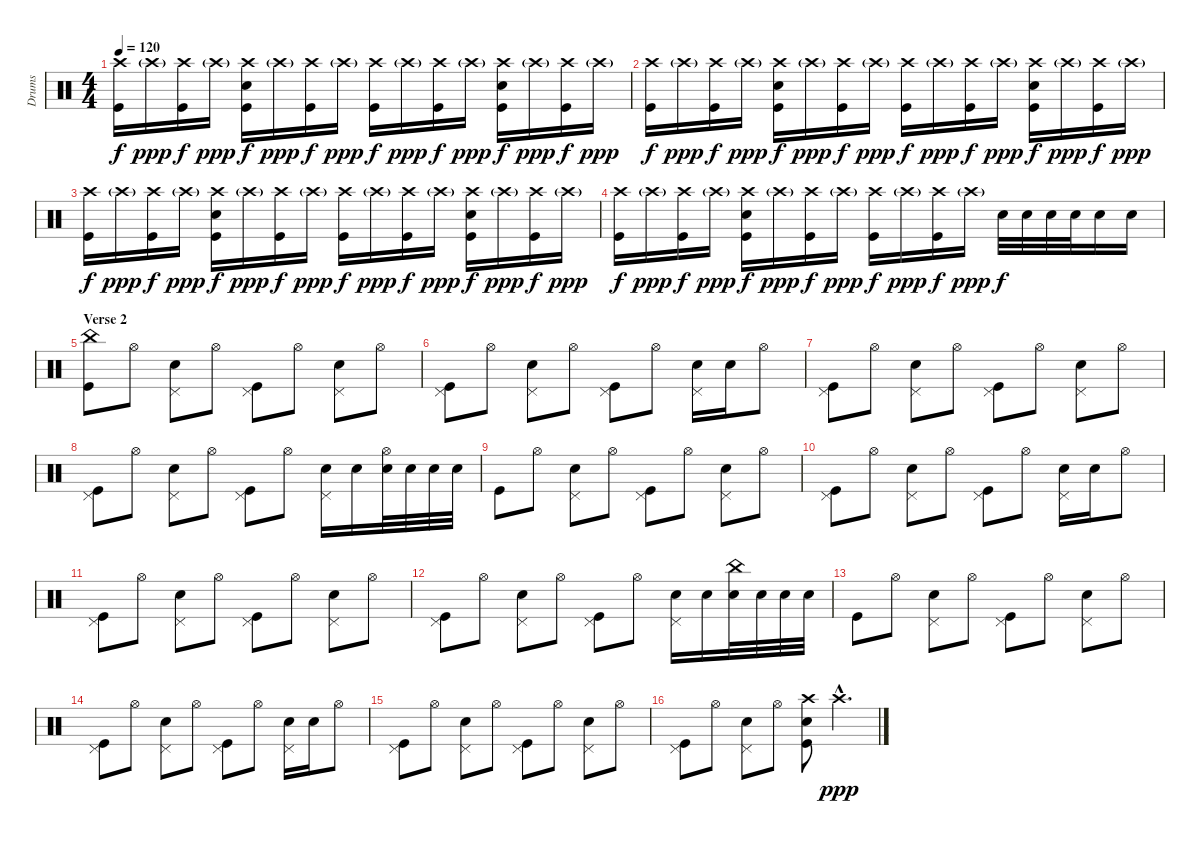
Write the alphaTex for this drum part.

\track ("Drums" "Drums") {instrument percussion}
\staff {score}
\articulation defaults
\ts (4 4)
\tempo 120
\clef neutral
\ks c
("Crash high (hit)" "Kick (hit)").16{dy f} "Crash high (hit)"{g}.16{dy ppp} ("Crash high (hit)" "Kick (hit)").16{dy f} "Crash high (hit)"{g}.16{dy ppp} ("Crash high (hit)" "Electric Snare (hit)" "Kick (hit)").16{dy f} "Crash high (hit)"{g}.16{dy ppp} ("Crash high (hit)" "Kick (hit)").16{dy f} "Crash high (hit)"{g}.16{dy ppp} ("Crash high (hit)" "Kick (hit)").16{dy f} "Crash high (hit)"{g}.16{dy ppp} ("Crash high (hit)" "Kick (hit)").16{dy f} "Crash high (hit)"{g}.16{dy ppp} ("Crash high (hit)" "Electric Snare (hit)" "Kick (hit)").16{dy f} "Crash high (hit)"{g}.16{dy ppp} ("Crash high (hit)" "Kick (hit)").16{dy f} "Crash high (hit)"{g}.16{dy ppp} |
("Crash high (hit)" "Kick (hit)").16{dy f} "Crash high (hit)"{g}.16{dy ppp} ("Crash high (hit)" "Kick (hit)").16{dy f} "Crash high (hit)"{g}.16{dy ppp} ("Crash high (hit)" "Electric Snare (hit)" "Kick (hit)").16{dy f} "Crash high (hit)"{g}.16{dy ppp} ("Crash high (hit)" "Kick (hit)").16{dy f} "Crash high (hit)"{g}.16{dy ppp} ("Crash high (hit)" "Kick (hit)").16{dy f} "Crash high (hit)"{g}.16{dy ppp} ("Crash high (hit)" "Kick (hit)").16{dy f} "Crash high (hit)"{g}.16{dy ppp} ("Crash high (hit)" "Electric Snare (hit)" "Kick (hit)").16{dy f} "Crash high (hit)"{g}.16{dy ppp} ("Crash high (hit)" "Kick (hit)").16{dy f} "Crash high (hit)"{g}.16{dy ppp} |
("Crash high (hit)" "Kick (hit)").16{dy f} "Crash high (hit)"{g}.16{dy ppp} ("Crash high (hit)" "Kick (hit)").16{dy f} "Crash high (hit)"{g}.16{dy ppp} ("Crash high (hit)" "Electric Snare (hit)" "Kick (hit)").16{dy f} "Crash high (hit)"{g}.16{dy ppp} ("Crash high (hit)" "Kick (hit)").16{dy f} "Crash high (hit)"{g}.16{dy ppp} ("Crash high (hit)" "Kick (hit)").16{dy f} "Crash high (hit)"{g}.16{dy ppp} ("Crash high (hit)" "Kick (hit)").16{dy f} "Crash high (hit)"{g}.16{dy ppp} ("Crash high (hit)" "Electric Snare (hit)" "Kick (hit)").16{dy f} "Crash high (hit)"{g}.16{dy ppp} ("Crash high (hit)" "Kick (hit)").16{dy f} "Crash high (hit)"{g}.16{dy ppp} |
("Crash high (hit)" "Kick (hit)").16{dy f} "Crash high (hit)"{g}.16{dy ppp} ("Crash high (hit)" "Kick (hit)").16{dy f} "Crash high (hit)"{g}.16{dy ppp} ("Crash high (hit)" "Electric Snare (hit)" "Kick (hit)").16{dy f} "Crash high (hit)"{g}.16{dy ppp} ("Crash high (hit)" "Kick (hit)").16{dy f} "Crash high (hit)"{g}.16{dy ppp} ("Crash high (hit)" "Kick (hit)").16{dy f} "Crash high (hit)"{g}.16{dy ppp} ("Crash high (hit)" "Kick (hit)").16{dy f} "Crash high (hit)"{g}.16{dy ppp} "Electric Snare (hit)".32{dy f} "Electric Snare (hit)".32 "Electric Snare (hit)".32 "Electric Snare (hit)".32 "Electric Snare (hit)".16 "Electric Snare (hit)".16 |
\section ("" "Verse 2")
("China (hit)" "Kick (hit)").8 "Hi-Hat (open)".8 ("Pedal Hi-Hat (hit)" "Electric Snare (hit)").8 "Hi-Hat (open)".8 ("Pedal Hi-Hat (hit)" "Kick (hit)").8 "Hi-Hat (open)".8 ("Pedal Hi-Hat (hit)" "Electric Snare (hit)").8 "Hi-Hat (open)".8 |
("Pedal Hi-Hat (hit)" "Kick (hit)").8 "Hi-Hat (open)".8 ("Pedal Hi-Hat (hit)" "Electric Snare (hit)").8 "Hi-Hat (open)".8 ("Pedal Hi-Hat (hit)" "Kick (hit)").8 "Hi-Hat (open)".8 ("Pedal Hi-Hat (hit)" "Electric Snare (hit)").16 "Electric Snare (hit)".16 "Hi-Hat (open)".8 |
("Pedal Hi-Hat (hit)" "Kick (hit)").8 "Hi-Hat (open)".8 ("Pedal Hi-Hat (hit)" "Electric Snare (hit)").8 "Hi-Hat (open)".8 ("Pedal Hi-Hat (hit)" "Kick (hit)").8 "Hi-Hat (open)".8 ("Pedal Hi-Hat (hit)" "Electric Snare (hit)").8 "Hi-Hat (open)".8 |
("Pedal Hi-Hat (hit)" "Kick (hit)").8 "Hi-Hat (open)".8 ("Pedal Hi-Hat (hit)" "Electric Snare (hit)").8 "Hi-Hat (open)".8 ("Pedal Hi-Hat (hit)" "Kick (hit)").8 "Hi-Hat (open)".8 ("Pedal Hi-Hat (hit)" "Electric Snare (hit)").16 "Electric Snare (hit)".16 ("Hi-Hat (open)" "Electric Snare (hit)").32 "Electric Snare (hit)".32 "Electric Snare (hit)".32 "Electric Snare (hit)".32 |
"Kick (hit)".8 "Hi-Hat (open)".8 ("Pedal Hi-Hat (hit)" "Electric Snare (hit)").8 "Hi-Hat (open)".8 ("Pedal Hi-Hat (hit)" "Kick (hit)").8 "Hi-Hat (open)".8 ("Pedal Hi-Hat (hit)" "Electric Snare (hit)").8 "Hi-Hat (open)".8 |
("Pedal Hi-Hat (hit)" "Kick (hit)").8 "Hi-Hat (open)".8 ("Pedal Hi-Hat (hit)" "Electric Snare (hit)").8 "Hi-Hat (open)".8 ("Pedal Hi-Hat (hit)" "Kick (hit)").8 "Hi-Hat (open)".8 ("Pedal Hi-Hat (hit)" "Electric Snare (hit)").16 "Electric Snare (hit)".16 "Hi-Hat (open)".8 |
("Pedal Hi-Hat (hit)" "Kick (hit)").8 "Hi-Hat (open)".8 ("Pedal Hi-Hat (hit)" "Electric Snare (hit)").8 "Hi-Hat (open)".8 ("Pedal Hi-Hat (hit)" "Kick (hit)").8 "Hi-Hat (open)".8 ("Pedal Hi-Hat (hit)" "Electric Snare (hit)").8 "Hi-Hat (open)".8 |
("Pedal Hi-Hat (hit)" "Kick (hit)").8 "Hi-Hat (open)".8 ("Pedal Hi-Hat (hit)" "Electric Snare (hit)").8 "Hi-Hat (open)".8 ("Pedal Hi-Hat (hit)" "Kick (hit)").8 "Hi-Hat (open)".8 ("Pedal Hi-Hat (hit)" "Electric Snare (hit)").16 "Electric Snare (hit)".16 ("China (hit)" "Electric Snare (hit)").32 "Electric Snare (hit)".32 "Electric Snare (hit)".32 "Electric Snare (hit)".32 |
"Kick (hit)".8 "Hi-Hat (open)".8 ("Pedal Hi-Hat (hit)" "Electric Snare (hit)").8 "Hi-Hat (open)".8 ("Pedal Hi-Hat (hit)" "Kick (hit)").8 "Hi-Hat (open)".8 ("Pedal Hi-Hat (hit)" "Electric Snare (hit)").8 "Hi-Hat (open)".8 |
("Pedal Hi-Hat (hit)" "Kick (hit)").8 "Hi-Hat (open)".8 ("Pedal Hi-Hat (hit)" "Electric Snare (hit)").8 "Hi-Hat (open)".8 ("Pedal Hi-Hat (hit)" "Kick (hit)").8 "Hi-Hat (open)".8 ("Pedal Hi-Hat (hit)" "Electric Snare (hit)").16 "Electric Snare (hit)".16 "Hi-Hat (open)".8 |
("Pedal Hi-Hat (hit)" "Kick (hit)").8 "Hi-Hat (open)".8 ("Pedal Hi-Hat (hit)" "Electric Snare (hit)").8 "Hi-Hat (open)".8 ("Pedal Hi-Hat (hit)" "Kick (hit)").8 "Hi-Hat (open)".8 ("Pedal Hi-Hat (hit)" "Electric Snare (hit)").8 "Hi-Hat (open)".8 |
("Pedal Hi-Hat (hit)" "Kick (hit)").8 "Hi-Hat (open)".8 ("Pedal Hi-Hat (hit)" "Electric Snare (hit)").8 "Hi-Hat (open)".8 ("Crash high (hit)" "Electric Snare (hit)" "Kick (hit)").8 "Crash high (hit)"{hac}.4{d dy ppp}
